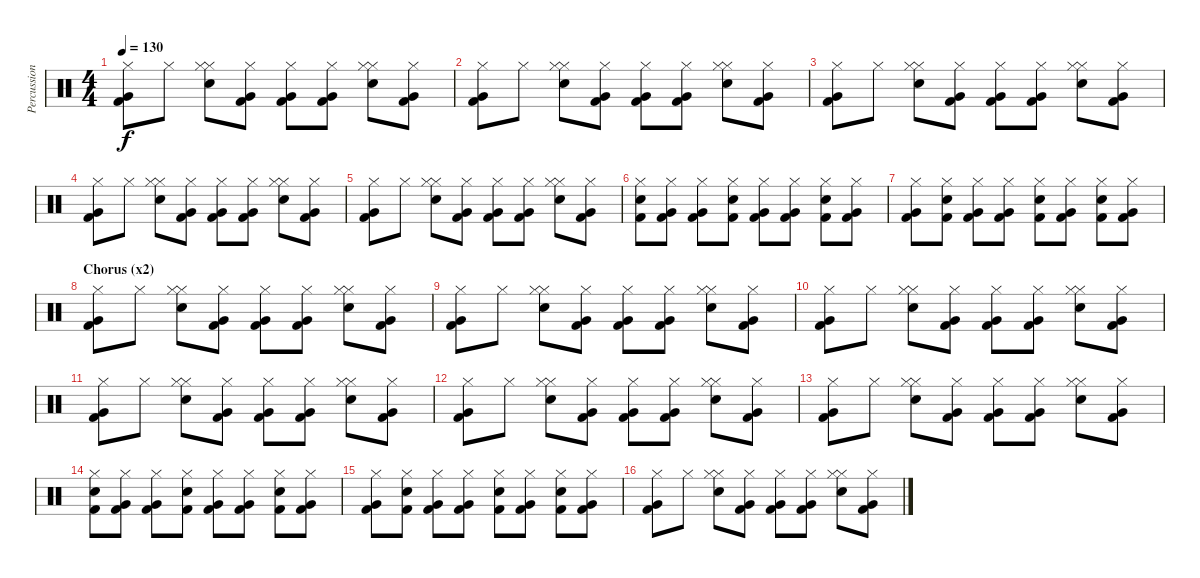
\track ("Percussion" "Percussion") {instrument percussion}
\staff {score}
\articulation defaults
\ts (4 4)
\tempo 130
\clef neutral
\ks c
("Hi-Hat (closed)" "Very Low Tom (hit)" "Kick (hit) 2").8{dy f} "Hi-Hat (closed)".8 ("Hi-Hat (closed)" "Hi-Hat (closed)" "Snare (hit) 2").8 ("Hi-Hat (closed)" "Very Low Tom (hit)" "Kick (hit) 2").8 ("Hi-Hat (closed)" "Very Low Tom (hit)" "Kick (hit) 2").8 ("Hi-Hat (closed)" "Very Low Tom (hit)" "Kick (hit) 2").8 ("Hi-Hat (closed)" "Hi-Hat (closed)" "Snare (hit) 2").8 ("Hi-Hat (closed)" "Very Low Tom (hit)" "Kick (hit) 2").8 |
("Hi-Hat (closed)" "Very Low Tom (hit)" "Kick (hit) 2").8 "Hi-Hat (closed)".8 ("Hi-Hat (closed)" "Hi-Hat (closed)" "Snare (hit) 2").8 ("Hi-Hat (closed)" "Very Low Tom (hit)" "Kick (hit) 2").8 ("Hi-Hat (closed)" "Very Low Tom (hit)" "Kick (hit) 2").8 ("Hi-Hat (closed)" "Very Low Tom (hit)" "Kick (hit) 2").8 ("Hi-Hat (closed)" "Hi-Hat (closed)" "Snare (hit) 2").8 ("Hi-Hat (closed)" "Very Low Tom (hit)" "Kick (hit) 2").8 |
("Hi-Hat (closed)" "Very Low Tom (hit)" "Kick (hit) 2").8 "Hi-Hat (closed)".8 ("Hi-Hat (closed)" "Hi-Hat (closed)" "Snare (hit) 2").8 ("Hi-Hat (closed)" "Very Low Tom (hit)" "Kick (hit) 2").8 ("Hi-Hat (closed)" "Very Low Tom (hit)" "Kick (hit) 2").8 ("Hi-Hat (closed)" "Very Low Tom (hit)" "Kick (hit) 2").8 ("Hi-Hat (closed)" "Hi-Hat (closed)" "Snare (hit) 2").8 ("Hi-Hat (closed)" "Very Low Tom (hit)" "Kick (hit) 2").8 |
("Hi-Hat (closed)" "Very Low Tom (hit)" "Kick (hit) 2").8 "Hi-Hat (closed)".8 ("Hi-Hat (closed)" "Hi-Hat (closed)" "Snare (hit) 2").8 ("Hi-Hat (closed)" "Very Low Tom (hit)" "Kick (hit) 2").8 ("Hi-Hat (closed)" "Very Low Tom (hit)" "Kick (hit) 2").8 ("Hi-Hat (closed)" "Very Low Tom (hit)" "Kick (hit) 2").8 ("Hi-Hat (closed)" "Hi-Hat (closed)" "Snare (hit) 2").8 ("Hi-Hat (closed)" "Very Low Tom (hit)" "Kick (hit) 2").8 |
("Hi-Hat (closed)" "Very Low Tom (hit)" "Kick (hit) 2").8 "Hi-Hat (closed)".8 ("Hi-Hat (closed)" "Hi-Hat (closed)" "Snare (hit) 2").8 ("Hi-Hat (closed)" "Very Low Tom (hit)" "Kick (hit) 2").8 ("Hi-Hat (closed)" "Very Low Tom (hit)" "Kick (hit) 2").8 ("Hi-Hat (closed)" "Very Low Tom (hit)" "Kick (hit) 2").8 ("Hi-Hat (closed)" "Hi-Hat (closed)" "Snare (hit) 2").8 ("Hi-Hat (closed)" "Very Low Tom (hit)" "Kick (hit) 2").8 |
("Hi-Hat (closed)" "Snare (hit) 2" "Kick (hit) 2").8 ("Hi-Hat (closed)" "Very Low Tom (hit)" "Kick (hit) 2").8 ("Hi-Hat (closed)" "Very Low Tom (hit)" "Kick (hit) 2").8 ("Hi-Hat (closed)" "Snare (hit) 2" "Kick (hit) 2").8 ("Hi-Hat (closed)" "Very Low Tom (hit)" "Kick (hit) 2").8 ("Hi-Hat (closed)" "Very Low Tom (hit)" "Kick (hit) 2").8 ("Hi-Hat (closed)" "Snare (hit) 2" "Kick (hit) 2").8 ("Hi-Hat (closed)" "Very Low Tom (hit)" "Kick (hit) 2").8 |
("Hi-Hat (closed)" "Very Low Tom (hit)" "Kick (hit) 2").8 ("Hi-Hat (closed)" "Snare (hit) 2" "Kick (hit) 2").8 ("Hi-Hat (closed)" "Very Low Tom (hit)" "Kick (hit) 2").8 ("Hi-Hat (closed)" "Very Low Tom (hit)" "Kick (hit) 2").8 ("Hi-Hat (closed)" "Snare (hit) 2" "Kick (hit) 2").8 ("Hi-Hat (closed)" "Very Low Tom (hit)" "Kick (hit) 2").8 ("Hi-Hat (closed)" "Snare (hit) 2" "Kick (hit) 2").8 ("Hi-Hat (closed)" "Very Low Tom (hit)" "Kick (hit) 2").8 |
\section ("" "Chorus (x2)")
("Hi-Hat (closed)" "Very Low Tom (hit)" "Kick (hit) 2").8 "Hi-Hat (closed)".8 ("Hi-Hat (closed)" "Hi-Hat (closed)" "Snare (hit) 2").8 ("Hi-Hat (closed)" "Very Low Tom (hit)" "Kick (hit) 2").8 ("Hi-Hat (closed)" "Very Low Tom (hit)" "Kick (hit) 2").8 ("Hi-Hat (closed)" "Very Low Tom (hit)" "Kick (hit) 2").8 ("Hi-Hat (closed)" "Hi-Hat (closed)" "Snare (hit) 2").8 ("Hi-Hat (closed)" "Very Low Tom (hit)" "Kick (hit) 2").8 |
("Hi-Hat (closed)" "Very Low Tom (hit)" "Kick (hit) 2").8 "Hi-Hat (closed)".8 ("Hi-Hat (closed)" "Hi-Hat (closed)" "Snare (hit) 2").8 ("Hi-Hat (closed)" "Very Low Tom (hit)" "Kick (hit) 2").8 ("Hi-Hat (closed)" "Very Low Tom (hit)" "Kick (hit) 2").8 ("Hi-Hat (closed)" "Very Low Tom (hit)" "Kick (hit) 2").8 ("Hi-Hat (closed)" "Hi-Hat (closed)" "Snare (hit) 2").8 ("Hi-Hat (closed)" "Very Low Tom (hit)" "Kick (hit) 2").8 |
("Hi-Hat (closed)" "Very Low Tom (hit)" "Kick (hit) 2").8 "Hi-Hat (closed)".8 ("Hi-Hat (closed)" "Hi-Hat (closed)" "Snare (hit) 2").8 ("Hi-Hat (closed)" "Very Low Tom (hit)" "Kick (hit) 2").8 ("Hi-Hat (closed)" "Very Low Tom (hit)" "Kick (hit) 2").8 ("Hi-Hat (closed)" "Very Low Tom (hit)" "Kick (hit) 2").8 ("Hi-Hat (closed)" "Hi-Hat (closed)" "Snare (hit) 2").8 ("Hi-Hat (closed)" "Very Low Tom (hit)" "Kick (hit) 2").8 |
("Hi-Hat (closed)" "Very Low Tom (hit)" "Kick (hit) 2").8 "Hi-Hat (closed)".8 ("Hi-Hat (closed)" "Hi-Hat (closed)" "Snare (hit) 2").8 ("Hi-Hat (closed)" "Very Low Tom (hit)" "Kick (hit) 2").8 ("Hi-Hat (closed)" "Very Low Tom (hit)" "Kick (hit) 2").8 ("Hi-Hat (closed)" "Very Low Tom (hit)" "Kick (hit) 2").8 ("Hi-Hat (closed)" "Hi-Hat (closed)" "Snare (hit) 2").8 ("Hi-Hat (closed)" "Very Low Tom (hit)" "Kick (hit) 2").8 |
("Hi-Hat (closed)" "Very Low Tom (hit)" "Kick (hit) 2").8 "Hi-Hat (closed)".8 ("Hi-Hat (closed)" "Hi-Hat (closed)" "Snare (hit) 2").8 ("Hi-Hat (closed)" "Very Low Tom (hit)" "Kick (hit) 2").8 ("Hi-Hat (closed)" "Very Low Tom (hit)" "Kick (hit) 2").8 ("Hi-Hat (closed)" "Very Low Tom (hit)" "Kick (hit) 2").8 ("Hi-Hat (closed)" "Hi-Hat (closed)" "Snare (hit) 2").8 ("Hi-Hat (closed)" "Very Low Tom (hit)" "Kick (hit) 2").8 |
("Hi-Hat (closed)" "Very Low Tom (hit)" "Kick (hit) 2").8 "Hi-Hat (closed)".8 ("Hi-Hat (closed)" "Hi-Hat (closed)" "Snare (hit) 2").8 ("Hi-Hat (closed)" "Very Low Tom (hit)" "Kick (hit) 2").8 ("Hi-Hat (closed)" "Very Low Tom (hit)" "Kick (hit) 2").8 ("Hi-Hat (closed)" "Very Low Tom (hit)" "Kick (hit) 2").8 ("Hi-Hat (closed)" "Hi-Hat (closed)" "Snare (hit) 2").8 ("Hi-Hat (closed)" "Very Low Tom (hit)" "Kick (hit) 2").8 |
("Hi-Hat (closed)" "Snare (hit) 2" "Kick (hit) 2").8 ("Hi-Hat (closed)" "Very Low Tom (hit)" "Kick (hit) 2").8 ("Hi-Hat (closed)" "Very Low Tom (hit)" "Kick (hit) 2").8 ("Hi-Hat (closed)" "Snare (hit) 2" "Kick (hit) 2").8 ("Hi-Hat (closed)" "Very Low Tom (hit)" "Kick (hit) 2").8 ("Hi-Hat (closed)" "Very Low Tom (hit)" "Kick (hit) 2").8 ("Hi-Hat (closed)" "Snare (hit) 2" "Kick (hit) 2").8 ("Hi-Hat (closed)" "Very Low Tom (hit)" "Kick (hit) 2").8 |
("Hi-Hat (closed)" "Very Low Tom (hit)" "Kick (hit) 2").8 ("Hi-Hat (closed)" "Snare (hit) 2" "Kick (hit) 2").8 ("Hi-Hat (closed)" "Very Low Tom (hit)" "Kick (hit) 2").8 ("Hi-Hat (closed)" "Very Low Tom (hit)" "Kick (hit) 2").8 ("Hi-Hat (closed)" "Snare (hit) 2" "Kick (hit) 2").8 ("Hi-Hat (closed)" "Very Low Tom (hit)" "Kick (hit) 2").8 ("Hi-Hat (closed)" "Snare (hit) 2" "Kick (hit) 2").8 ("Hi-Hat (closed)" "Very Low Tom (hit)" "Kick (hit) 2").8 |
("Hi-Hat (closed)" "Very Low Tom (hit)" "Kick (hit) 2").8 "Hi-Hat (closed)".8 ("Hi-Hat (closed)" "Hi-Hat (closed)" "Snare (hit) 2").8 ("Hi-Hat (closed)" "Very Low Tom (hit)" "Kick (hit) 2").8 ("Hi-Hat (closed)" "Very Low Tom (hit)" "Kick (hit) 2").8 ("Hi-Hat (closed)" "Very Low Tom (hit)" "Kick (hit) 2").8 ("Hi-Hat (closed)" "Hi-Hat (closed)" "Snare (hit) 2").8 ("Hi-Hat (closed)" "Very Low Tom (hit)" "Kick (hit) 2").8
